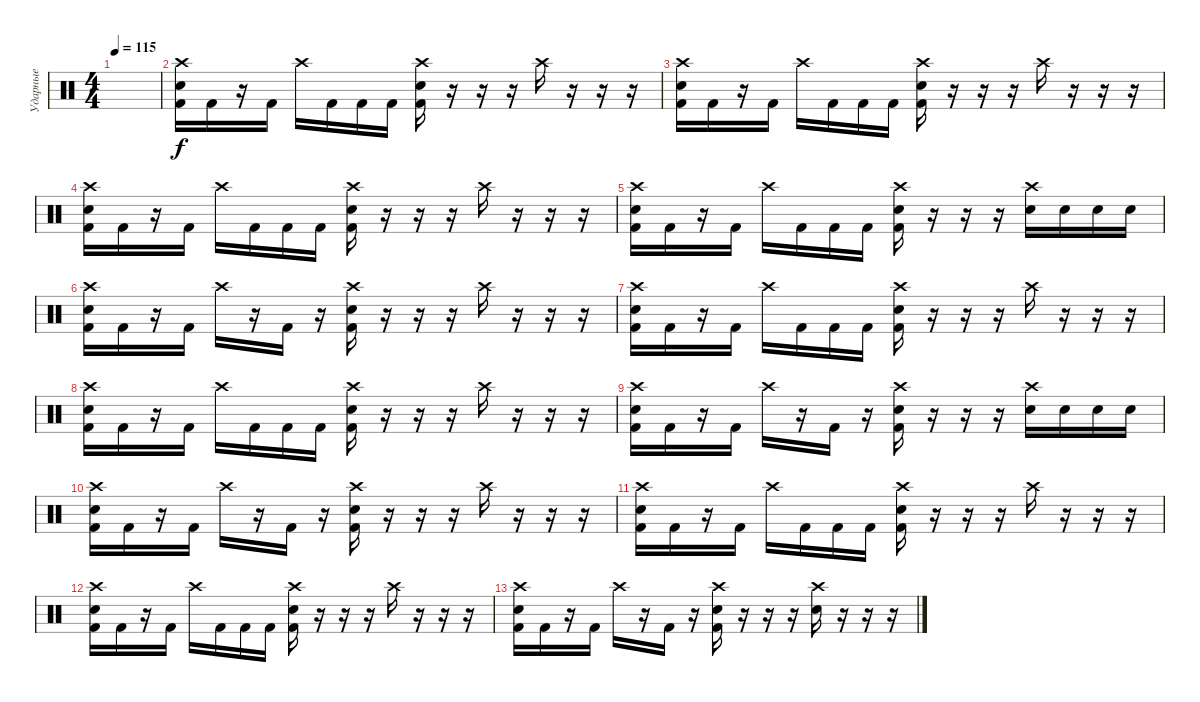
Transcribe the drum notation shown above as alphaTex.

\track ("Ударные" "Ударные") {instrument percussion}
\staff {score}
\articulation defaults
\ts (4 4)
\tempo 115
\clef neutral
\ks c
|
("Kick (hit) 2" "Snare (hit) 2" "Crash high (hit)").16 "Kick (hit) 2".16 r.16 "Kick (hit) 2".16 "Crash high (hit)".16 "Kick (hit) 2".16 "Kick (hit) 2".16 "Kick (hit) 2".16 ("Kick (hit) 2" "Snare (hit) 2" "Crash high (hit)").16 r.16 r.16 r.16 "Crash high (hit)".16 r.16 r.16 r.16 |
("Kick (hit) 2" "Snare (hit) 2" "Crash high (hit)").16 "Kick (hit) 2".16 r.16 "Kick (hit) 2".16 "Crash high (hit)".16 "Kick (hit) 2".16 "Kick (hit) 2".16 "Kick (hit) 2".16 ("Kick (hit) 2" "Snare (hit) 2" "Crash high (hit)").16 r.16 r.16 r.16 "Crash high (hit)".16 r.16 r.16 r.16 |
("Kick (hit) 2" "Snare (hit) 2" "Crash high (hit)").16 "Kick (hit) 2".16 r.16 "Kick (hit) 2".16 "Crash high (hit)".16 "Kick (hit) 2".16 "Kick (hit) 2".16 "Kick (hit) 2".16 ("Kick (hit) 2" "Snare (hit) 2" "Crash high (hit)").16 r.16 r.16 r.16 "Crash high (hit)".16 r.16 r.16 r.16 |
("Kick (hit) 2" "Snare (hit) 2" "Crash high (hit)").16 "Kick (hit) 2".16 r.16 "Kick (hit) 2".16 "Crash high (hit)".16 "Kick (hit) 2".16 "Kick (hit) 2".16 "Kick (hit) 2".16 ("Kick (hit) 2" "Snare (hit) 2" "Crash high (hit)").16 r.16 r.16 r.16 ("Snare (hit) 2" "Crash high (hit)").16 "Snare (hit) 2".16 "Snare (hit) 2".16 "Snare (hit) 2".16 |
("Kick (hit) 2" "Snare (hit) 2" "Crash high (hit)").16 "Kick (hit) 2".16 r.16 "Kick (hit) 2".16 "Crash high (hit)".16 r.16 "Kick (hit) 2".16 r.16 ("Kick (hit) 2" "Snare (hit) 2" "Crash high (hit)").16 r.16 r.16 r.16 "Crash high (hit)".16 r.16 r.16 r.16 |
("Kick (hit) 2" "Snare (hit) 2" "Crash high (hit)").16 "Kick (hit) 2".16 r.16 "Kick (hit) 2".16 "Crash high (hit)".16 "Kick (hit) 2".16 "Kick (hit) 2".16 "Kick (hit) 2".16 ("Kick (hit) 2" "Snare (hit) 2" "Crash high (hit)").16 r.16 r.16 r.16 "Crash high (hit)".16 r.16 r.16 r.16 |
("Kick (hit) 2" "Snare (hit) 2" "Crash high (hit)").16 "Kick (hit) 2".16 r.16 "Kick (hit) 2".16 "Crash high (hit)".16 "Kick (hit) 2".16 "Kick (hit) 2".16 "Kick (hit) 2".16 ("Kick (hit) 2" "Snare (hit) 2" "Crash high (hit)").16 r.16 r.16 r.16 "Crash high (hit)".16 r.16 r.16 r.16 |
("Kick (hit) 2" "Snare (hit) 2" "Crash high (hit)").16 "Kick (hit) 2".16 r.16 "Kick (hit) 2".16 "Crash high (hit)".16 r.16 "Kick (hit) 2".16 r.16 ("Kick (hit) 2" "Snare (hit) 2" "Crash high (hit)").16 r.16 r.16 r.16 ("Snare (hit) 2" "Crash high (hit)").16 "Snare (hit) 2".16 "Snare (hit) 2".16 "Snare (hit) 2".16 |
("Kick (hit) 2" "Snare (hit) 2" "Crash high (hit)").16 "Kick (hit) 2".16 r.16 "Kick (hit) 2".16 "Crash high (hit)".16 r.16 "Kick (hit) 2".16 r.16 ("Kick (hit) 2" "Snare (hit) 2" "Crash high (hit)").16 r.16 r.16 r.16 "Crash high (hit)".16 r.16 r.16 r.16 |
("Kick (hit) 2" "Snare (hit) 2" "Crash high (hit)").16 "Kick (hit) 2".16 r.16 "Kick (hit) 2".16 "Crash high (hit)".16 "Kick (hit) 2".16 "Kick (hit) 2".16 "Kick (hit) 2".16 ("Kick (hit) 2" "Snare (hit) 2" "Crash high (hit)").16 r.16 r.16 r.16 "Crash high (hit)".16 r.16 r.16 r.16 |
("Kick (hit) 2" "Snare (hit) 2" "Crash high (hit)").16 "Kick (hit) 2".16 r.16 "Kick (hit) 2".16 "Crash high (hit)".16 "Kick (hit) 2".16 "Kick (hit) 2".16 "Kick (hit) 2".16 ("Kick (hit) 2" "Snare (hit) 2" "Crash high (hit)").16 r.16 r.16 r.16 "Crash high (hit)".16 r.16 r.16 r.16 |
("Kick (hit) 2" "Snare (hit) 2" "Crash high (hit)").16 "Kick (hit) 2".16 r.16 "Kick (hit) 2".16 "Crash high (hit)".16 r.16 "Kick (hit) 2".16 r.16 ("Kick (hit) 2" "Snare (hit) 2" "Crash high (hit)").16 r.16 r.16 r.16 ("Snare (hit) 2" "Crash high (hit)").16 r.16 r.16 r.16
